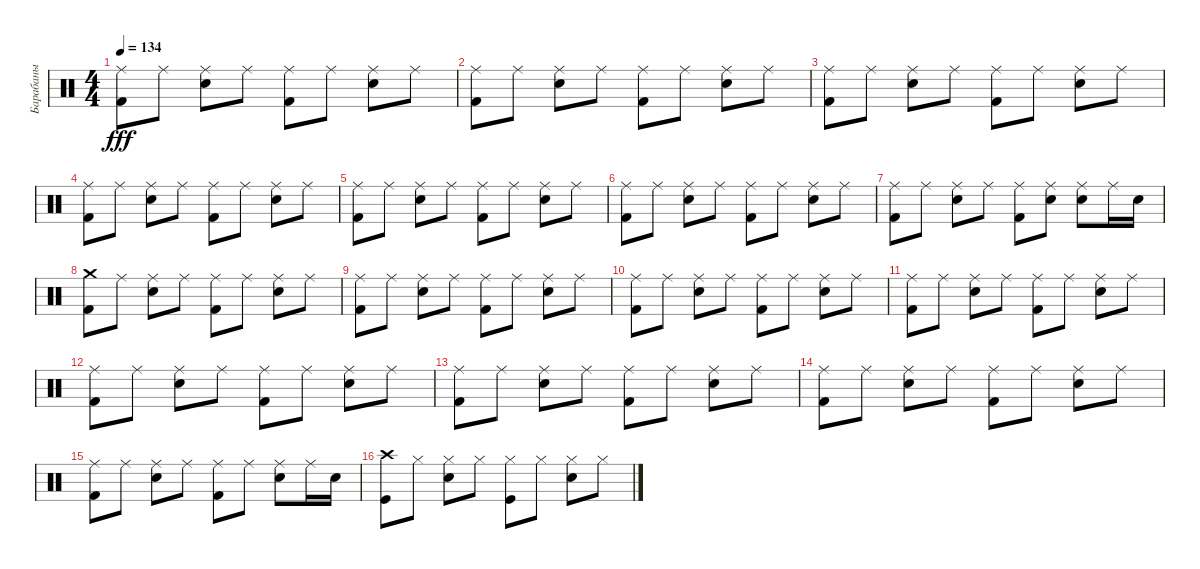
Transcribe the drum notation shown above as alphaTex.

\track ("Барабаны" "Барабаны") {instrument percussion}
\staff {score}
\articulation defaults
\ts (4 4)
\tempo 134
\clef neutral
\ks c
("Ride (middle)" "Kick (hit) 2").8{dy fff} "Ride (middle)".8 ("Ride (middle)" "Electric Snare (hit)").8 "Ride (middle)".8 ("Ride (middle)" "Kick (hit) 2").8 "Ride (middle)".8 ("Ride (middle)" "Electric Snare (hit)").8 "Ride (middle)".8 |
("Ride (middle)" "Kick (hit) 2").8 "Ride (middle)".8 ("Ride (middle)" "Electric Snare (hit)").8 "Ride (middle)".8 ("Ride (middle)" "Kick (hit) 2").8 "Ride (middle)".8 ("Ride (middle)" "Electric Snare (hit)").8 "Ride (middle)".8 |
("Ride (middle)" "Kick (hit) 2").8 "Ride (middle)".8 ("Ride (middle)" "Electric Snare (hit)").8 "Ride (middle)".8 ("Ride (middle)" "Kick (hit) 2").8 "Ride (middle)".8 ("Ride (middle)" "Electric Snare (hit)").8 "Ride (middle)".8 |
("Ride (middle)" "Kick (hit) 2").8 "Ride (middle)".8 ("Ride (middle)" "Electric Snare (hit)").8 "Ride (middle)".8 ("Ride (middle)" "Kick (hit) 2").8 "Ride (middle)".8 ("Ride (middle)" "Electric Snare (hit)").8 "Ride (middle)".8 |
("Ride (middle)" "Kick (hit) 2").8 "Ride (middle)".8 ("Ride (middle)" "Electric Snare (hit)").8 "Ride (middle)".8 ("Ride (middle)" "Kick (hit) 2").8 "Ride (middle)".8 ("Ride (middle)" "Electric Snare (hit)").8 "Ride (middle)".8 |
("Ride (middle)" "Kick (hit) 2").8 "Ride (middle)".8 ("Ride (middle)" "Electric Snare (hit)").8 "Ride (middle)".8 ("Ride (middle)" "Kick (hit) 2").8 "Ride (middle)".8 ("Ride (middle)" "Electric Snare (hit)").8 "Ride (middle)".8 |
("Ride (middle)" "Kick (hit) 2").8 "Ride (middle)".8 ("Ride (middle)" "Electric Snare (hit)").8 "Ride (middle)".8 ("Ride (middle)" "Kick (hit) 2").8 ("Ride (middle)" "Electric Snare (hit)").8 ("Ride (middle)" "Electric Snare (hit)").8 "Ride (middle)".16 "Electric Snare (hit)".16 |
("Crash medium (hit)" "Kick (hit) 2").8 "Ride (middle)".8 ("Ride (middle)" "Electric Snare (hit)").8 "Ride (middle)".8 ("Ride (middle)" "Kick (hit) 2").8 "Ride (middle)".8 ("Ride (middle)" "Electric Snare (hit)").8 "Ride (middle)".8 |
("Ride (middle)" "Kick (hit) 2").8 "Ride (middle)".8 ("Ride (middle)" "Electric Snare (hit)").8 "Ride (middle)".8 ("Ride (middle)" "Kick (hit) 2").8 "Ride (middle)".8 ("Ride (middle)" "Electric Snare (hit)").8 "Ride (middle)".8 |
("Ride (middle)" "Kick (hit) 2").8 "Ride (middle)".8 ("Ride (middle)" "Electric Snare (hit)").8 "Ride (middle)".8 ("Ride (middle)" "Kick (hit) 2").8 "Ride (middle)".8 ("Ride (middle)" "Electric Snare (hit)").8 "Ride (middle)".8 |
("Ride (middle)" "Kick (hit) 2").8 "Ride (middle)".8 ("Ride (middle)" "Electric Snare (hit)").8 "Ride (middle)".8 ("Ride (middle)" "Kick (hit) 2").8 "Ride (middle)".8 ("Ride (middle)" "Electric Snare (hit)").8 "Ride (middle)".8 |
("Ride (middle)" "Kick (hit) 2").8 "Ride (middle)".8 ("Ride (middle)" "Electric Snare (hit)").8 "Ride (middle)".8 ("Ride (middle)" "Kick (hit) 2").8 "Ride (middle)".8 ("Ride (middle)" "Electric Snare (hit)").8 "Ride (middle)".8 |
("Ride (middle)" "Kick (hit) 2").8 "Ride (middle)".8 ("Ride (middle)" "Electric Snare (hit)").8 "Ride (middle)".8 ("Ride (middle)" "Kick (hit) 2").8 "Ride (middle)".8 ("Ride (middle)" "Electric Snare (hit)").8 "Ride (middle)".8 |
("Ride (middle)" "Kick (hit) 2").8 "Ride (middle)".8 ("Ride (middle)" "Electric Snare (hit)").8 "Ride (middle)".8 ("Ride (middle)" "Kick (hit) 2").8 "Ride (middle)".8 ("Ride (middle)" "Electric Snare (hit)").8 "Ride (middle)".8 |
("Ride (middle)" "Kick (hit) 2").8 "Ride (middle)".8 ("Ride (middle)" "Electric Snare (hit)").8 "Ride (middle)".8 ("Ride (middle)" "Kick (hit) 2").8 "Ride (middle)".8 ("Ride (middle)" "Electric Snare (hit)").8 "Ride (middle)".16 "Electric Snare (hit)".16 |
("Crash high (hit)" "Kick (hit)").8 "Hi-Hat (closed)".8 ("Hi-Hat (closed)" "Snare (hit) 2").8 "Hi-Hat (closed)".8 ("Hi-Hat (closed)" "Kick (hit)").8 "Hi-Hat (closed)".8 ("Hi-Hat (closed)" "Snare (hit) 2").8 "Hi-Hat (closed)".8
